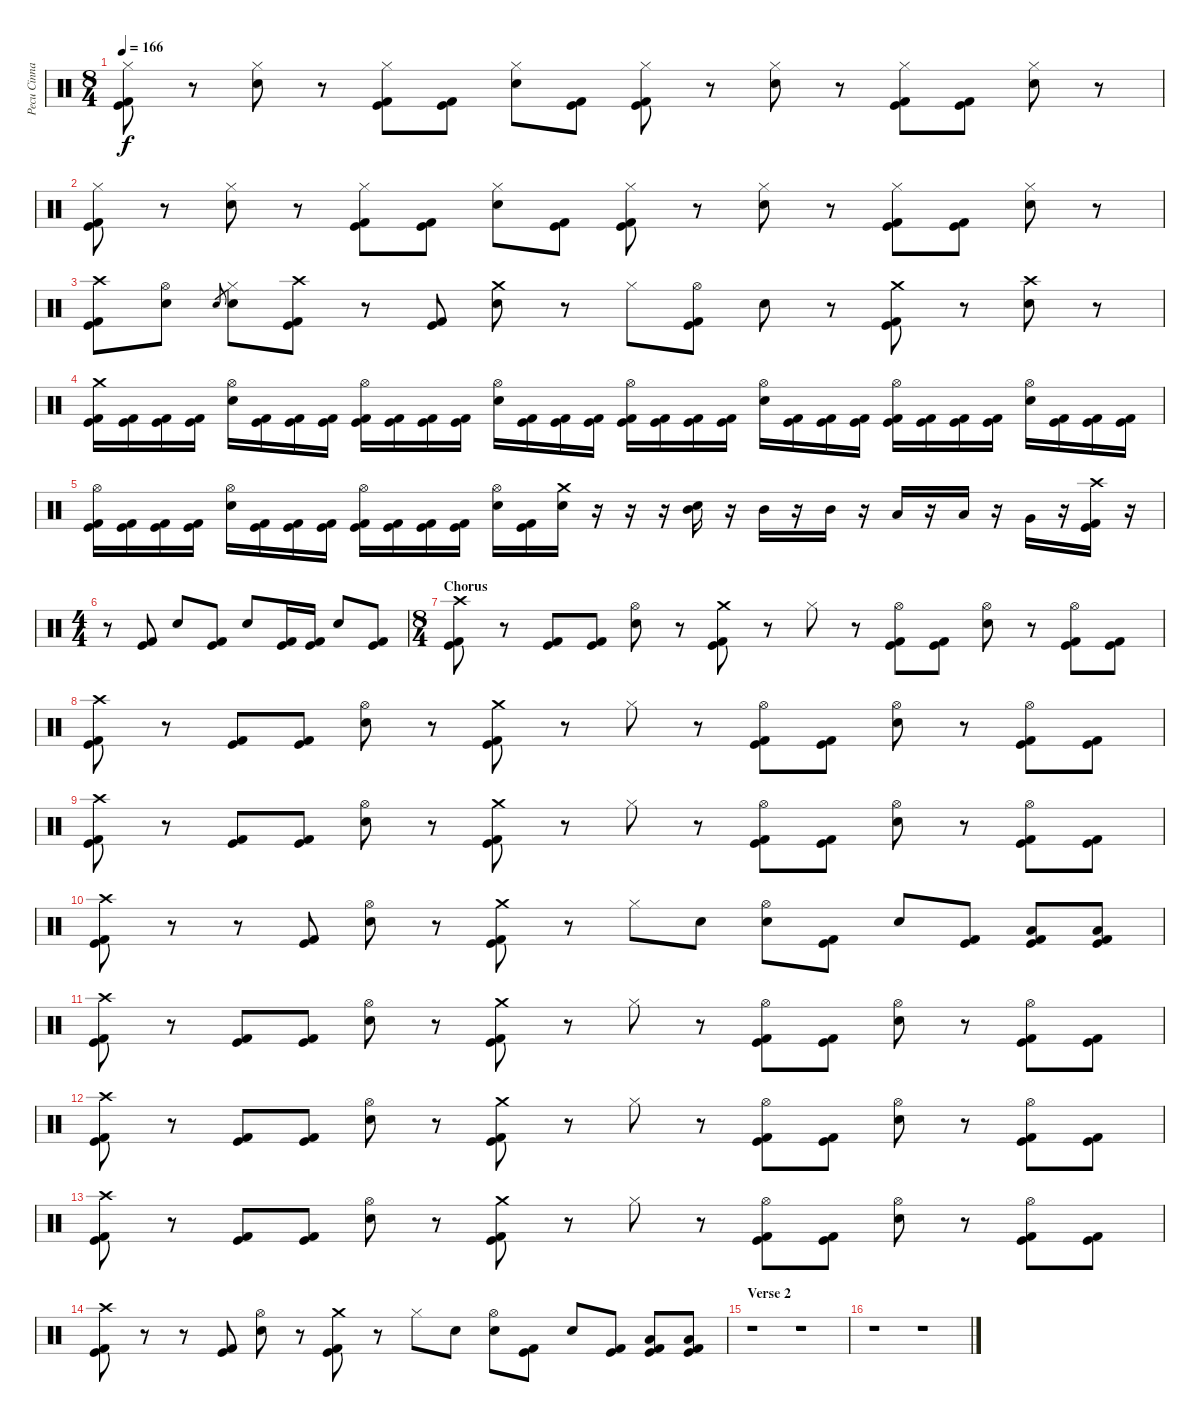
\track ("Pecu Cinnari" "Pecu Cinna") {instrument percussion}
\staff {score}
\articulation defaults
\ts (8 4)
\tempo 166
\clef neutral
\ks c
("Hi-Hat (closed)" "Kick (hit)" "Kick (hit) 2").8{dy f} r.8 ("Hi-Hat (closed)" "Electric Snare (hit)").8 r.8 ("Hi-Hat (closed)" "Kick (hit)" "Kick (hit) 2").8 ("Kick (hit)" "Kick (hit) 2").8 ("Hi-Hat (closed)" "Electric Snare (hit)").8 ("Kick (hit)" "Kick (hit) 2").8 ("Hi-Hat (closed)" "Kick (hit)" "Kick (hit) 2").8 r.8 ("Hi-Hat (closed)" "Electric Snare (hit)").8 r.8 ("Hi-Hat (closed)" "Kick (hit)" "Kick (hit) 2").8 ("Kick (hit)" "Kick (hit) 2").8 ("Hi-Hat (closed)" "Electric Snare (hit)").8 r.8 |
("Hi-Hat (closed)" "Kick (hit)" "Kick (hit) 2").8 r.8 ("Hi-Hat (closed)" "Electric Snare (hit)").8 r.8 ("Hi-Hat (closed)" "Kick (hit)" "Kick (hit) 2").8 ("Kick (hit)" "Kick (hit) 2").8 ("Hi-Hat (closed)" "Electric Snare (hit)").8 ("Kick (hit)" "Kick (hit) 2").8 ("Hi-Hat (closed)" "Kick (hit)" "Kick (hit) 2").8 r.8 ("Hi-Hat (closed)" "Electric Snare (hit)").8 r.8 ("Hi-Hat (closed)" "Kick (hit)" "Kick (hit) 2").8 ("Kick (hit)" "Kick (hit) 2").8 ("Hi-Hat (closed)" "Electric Snare (hit)").8 r.8 |
("Crash high (hit)" "Kick (hit)" "Kick (hit) 2").8 ("Hi-Hat (open)" "Electric Snare (hit)").8 "Electric Snare (hit)".8{gr} ("Hi-Hat (closed)" "Electric Snare (hit)").8 ("Crash high (hit)" "Kick (hit)" "Kick (hit) 2").8 r.8 ("Kick (hit)" "Kick (hit) 2").8 ("Crash medium (hit)" "Electric Snare (hit)").8 r.8 "Hi-Hat (closed)".8 ("Hi-Hat (open)" "Kick (hit)" "Kick (hit) 2").8 "Electric Snare (hit)".8 r.8 ("Crash medium (hit)" "Kick (hit)" "Kick (hit) 2").8 r.8 ("Crash high (hit)" "Electric Snare (hit)").8 r.8 |
("Crash medium (hit)" "Kick (hit)" "Kick (hit) 2").16 ("Kick (hit)" "Kick (hit) 2").16 ("Kick (hit)" "Kick (hit) 2").16 ("Kick (hit)" "Kick (hit) 2").16 ("Hi-Hat (open)" "Electric Snare (hit)").16 ("Kick (hit)" "Kick (hit) 2").16 ("Kick (hit)" "Kick (hit) 2").16 ("Kick (hit)" "Kick (hit) 2").16 ("Hi-Hat (open)" "Kick (hit)" "Kick (hit) 2").16 ("Kick (hit)" "Kick (hit) 2").16 ("Kick (hit)" "Kick (hit) 2").16 ("Kick (hit)" "Kick (hit) 2").16 ("Hi-Hat (open)" "Electric Snare (hit)").16 ("Kick (hit)" "Kick (hit) 2").16 ("Kick (hit)" "Kick (hit) 2").16 ("Kick (hit)" "Kick (hit) 2").16 ("Hi-Hat (open)" "Kick (hit)" "Kick (hit) 2").16 ("Kick (hit)" "Kick (hit) 2").16 ("Kick (hit)" "Kick (hit) 2").16 ("Kick (hit)" "Kick (hit) 2").16 ("Hi-Hat (open)" "Electric Snare (hit)").16 ("Kick (hit)" "Kick (hit) 2").16 ("Kick (hit)" "Kick (hit) 2").16 ("Kick (hit)" "Kick (hit) 2").16 ("Hi-Hat (open)" "Kick (hit)" "Kick (hit) 2").16 ("Kick (hit)" "Kick (hit) 2").16 ("Kick (hit)" "Kick (hit) 2").16 ("Kick (hit)" "Kick (hit) 2").16 ("Hi-Hat (open)" "Electric Snare (hit)").16 ("Kick (hit)" "Kick (hit) 2").16 ("Kick (hit)" "Kick (hit) 2").16 ("Kick (hit)" "Kick (hit) 2").16 |
("Hi-Hat (open)" "Kick (hit)" "Kick (hit) 2").16 ("Kick (hit)" "Kick (hit) 2").16 ("Kick (hit)" "Kick (hit) 2").16 ("Kick (hit)" "Kick (hit) 2").16 ("Hi-Hat (open)" "Electric Snare (hit)").16 ("Kick (hit)" "Kick (hit) 2").16 ("Kick (hit)" "Kick (hit) 2").16 ("Kick (hit)" "Kick (hit) 2").16 ("Hi-Hat (open)" "Kick (hit)" "Kick (hit) 2").16 ("Kick (hit)" "Kick (hit) 2").16 ("Kick (hit)" "Kick (hit) 2").16 ("Kick (hit)" "Kick (hit) 2").16 ("Hi-Hat (open)" "Electric Snare (hit)").16 ("Kick (hit)" "Kick (hit) 2").16 ("Crash medium (hit)" "Electric Snare (hit)").16 r.16 r.16 r.16 ("Mid Tom (hit)" "Electric Snare (hit)").16 r.16 "Mid Tom (hit)".16 r.16 "Mid Tom (hit)".16 r.16 "Low Tom (hit)".16 r.16 "Low Tom (hit)".16 r.16 "Very Low Tom (hit)".16 r.16 ("Crash high (hit)" "Kick (hit)" "Kick (hit) 2").16 r.16 |
\ts (4 4)
r.8 ("Kick (hit)" "Kick (hit) 2").8 "Electric Snare (hit)".8 ("Kick (hit)" "Kick (hit) 2").8 "Electric Snare (hit)".8 ("Kick (hit)" "Kick (hit) 2").16 ("Kick (hit)" "Kick (hit) 2").16 "Electric Snare (hit)".8 ("Kick (hit)" "Kick (hit) 2").8 |
\ts (8 4)
\section ("" "Chorus")
("Crash high (hit)" "Kick (hit)" "Kick (hit) 2").8 r.8 ("Kick (hit)" "Kick (hit) 2").8 ("Kick (hit)" "Kick (hit) 2").8 ("Hi-Hat (open)" "Electric Snare (hit)").8 r.8 ("Crash medium (hit)" "Kick (hit)" "Kick (hit) 2").8 r.8 "Hi-Hat (closed)".8 r.8 ("Hi-Hat (open)" "Kick (hit)" "Kick (hit) 2").8 ("Kick (hit)" "Kick (hit) 2").8 ("Hi-Hat (open)" "Electric Snare (hit)").8 r.8 ("Hi-Hat (open)" "Kick (hit)" "Kick (hit) 2").8 ("Kick (hit)" "Kick (hit) 2").8 |
("Crash high (hit)" "Kick (hit)" "Kick (hit) 2").8 r.8 ("Kick (hit)" "Kick (hit) 2").8 ("Kick (hit)" "Kick (hit) 2").8 ("Hi-Hat (open)" "Electric Snare (hit)").8 r.8 ("Crash medium (hit)" "Kick (hit)" "Kick (hit) 2").8 r.8 "Hi-Hat (closed)".8 r.8 ("Hi-Hat (open)" "Kick (hit)" "Kick (hit) 2").8 ("Kick (hit)" "Kick (hit) 2").8 ("Hi-Hat (open)" "Electric Snare (hit)").8 r.8 ("Hi-Hat (open)" "Kick (hit)" "Kick (hit) 2").8 ("Kick (hit)" "Kick (hit) 2").8 |
("Crash high (hit)" "Kick (hit)" "Kick (hit) 2").8 r.8 ("Kick (hit)" "Kick (hit) 2").8 ("Kick (hit)" "Kick (hit) 2").8 ("Hi-Hat (open)" "Electric Snare (hit)").8 r.8 ("Crash medium (hit)" "Kick (hit)" "Kick (hit) 2").8 r.8 "Hi-Hat (closed)".8 r.8 ("Hi-Hat (open)" "Kick (hit)" "Kick (hit) 2").8 ("Kick (hit)" "Kick (hit) 2").8 ("Hi-Hat (open)" "Electric Snare (hit)").8 r.8 ("Hi-Hat (open)" "Kick (hit)" "Kick (hit) 2").8 ("Kick (hit)" "Kick (hit) 2").8 |
("Crash high (hit)" "Kick (hit)" "Kick (hit) 2").8 r.8 r.8 ("Kick (hit)" "Kick (hit) 2").8 ("Hi-Hat (open)" "Electric Snare (hit)").8 r.8 ("Crash medium (hit)" "Kick (hit)" "Kick (hit) 2").8 r.8 "Hi-Hat (closed)".8 "Electric Snare (hit)".8 ("Hi-Hat (open)" "Electric Snare (hit)").8 ("Kick (hit)" "Kick (hit) 2").8 "Electric Snare (hit)".8 ("Kick (hit)" "Kick (hit) 2").8 ("Low Tom (hit)" "Kick (hit)" "Kick (hit) 2").8 ("Low Tom (hit)" "Kick (hit)" "Kick (hit) 2").8 |
("Crash high (hit)" "Kick (hit)" "Kick (hit) 2").8 r.8 ("Kick (hit)" "Kick (hit) 2").8 ("Kick (hit)" "Kick (hit) 2").8 ("Hi-Hat (open)" "Electric Snare (hit)").8 r.8 ("Crash medium (hit)" "Kick (hit)" "Kick (hit) 2").8 r.8 "Hi-Hat (closed)".8 r.8 ("Hi-Hat (open)" "Kick (hit)" "Kick (hit) 2").8 ("Kick (hit)" "Kick (hit) 2").8 ("Hi-Hat (open)" "Electric Snare (hit)").8 r.8 ("Hi-Hat (open)" "Kick (hit)" "Kick (hit) 2").8 ("Kick (hit)" "Kick (hit) 2").8 |
("Crash high (hit)" "Kick (hit)" "Kick (hit) 2").8 r.8 ("Kick (hit)" "Kick (hit) 2").8 ("Kick (hit)" "Kick (hit) 2").8 ("Hi-Hat (open)" "Electric Snare (hit)").8 r.8 ("Crash medium (hit)" "Kick (hit)" "Kick (hit) 2").8 r.8 "Hi-Hat (closed)".8 r.8 ("Hi-Hat (open)" "Kick (hit)" "Kick (hit) 2").8 ("Kick (hit)" "Kick (hit) 2").8 ("Hi-Hat (open)" "Electric Snare (hit)").8 r.8 ("Hi-Hat (open)" "Kick (hit)" "Kick (hit) 2").8 ("Kick (hit)" "Kick (hit) 2").8 |
("Crash high (hit)" "Kick (hit)" "Kick (hit) 2").8 r.8 ("Kick (hit)" "Kick (hit) 2").8 ("Kick (hit)" "Kick (hit) 2").8 ("Hi-Hat (open)" "Electric Snare (hit)").8 r.8 ("Crash medium (hit)" "Kick (hit)" "Kick (hit) 2").8 r.8 "Hi-Hat (closed)".8 r.8 ("Hi-Hat (open)" "Kick (hit)" "Kick (hit) 2").8 ("Kick (hit)" "Kick (hit) 2").8 ("Hi-Hat (open)" "Electric Snare (hit)").8 r.8 ("Hi-Hat (open)" "Kick (hit)" "Kick (hit) 2").8 ("Kick (hit)" "Kick (hit) 2").8 |
("Crash high (hit)" "Kick (hit)" "Kick (hit) 2").8 r.8 r.8 ("Kick (hit)" "Kick (hit) 2").8 ("Hi-Hat (open)" "Electric Snare (hit)").8 r.8 ("Crash medium (hit)" "Kick (hit)" "Kick (hit) 2").8 r.8 "Hi-Hat (closed)".8 "Electric Snare (hit)".8 ("Hi-Hat (open)" "Electric Snare (hit)").8 ("Kick (hit)" "Kick (hit) 2").8 "Electric Snare (hit)".8 ("Kick (hit)" "Kick (hit) 2").8 ("Low Tom (hit)" "Kick (hit)" "Kick (hit) 2").8 ("Low Tom (hit)" "Kick (hit)" "Kick (hit) 2").8 |
\section ("" "Verse 2")
r.1 r.1 |
r.1 r.1
